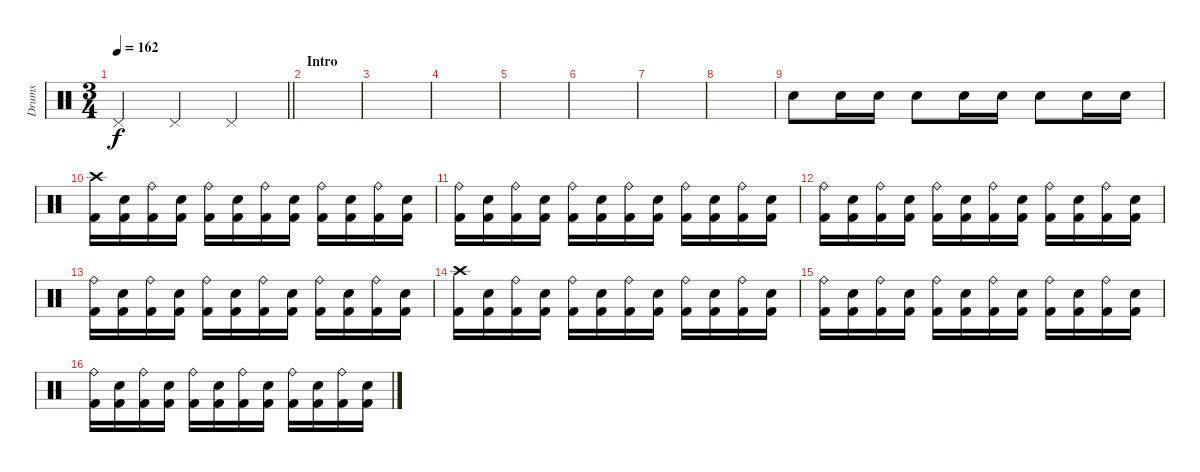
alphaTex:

\track ("Drums" "Drums") {instrument percussion}
\staff {score}
\articulation defaults
\ts (3 4)
\tempo 162
\clef neutral
\barLineRight lightlight
\ks c "Pedal Hi-Hat (hit)".4{dy f} "Pedal Hi-Hat (hit)".4 "Pedal Hi-Hat (hit)".4
|
\section ("" "Intro")
|
|
|
|
|
|
|
"Snare (hit) 2".8 "Snare (hit) 2".16 "Snare (hit) 2".16 "Snare (hit) 2".8 "Snare (hit) 2".16 "Snare (hit) 2".16 "Snare (hit) 2".8 "Snare (hit) 2".16 "Snare (hit) 2".16 |
("Crash high (hit)" "Kick (hit) 2").16 ("Snare (hit) 2" "Kick (hit) 2").16 ("Ride (bell)" "Kick (hit) 2").16 ("Snare (hit) 2" "Kick (hit) 2").16 ("Ride (bell)" "Kick (hit) 2").16 ("Snare (hit) 2" "Kick (hit) 2").16 ("Ride (bell)" "Kick (hit) 2").16 ("Snare (hit) 2" "Kick (hit) 2").16 ("Ride (bell)" "Kick (hit) 2").16 ("Snare (hit) 2" "Kick (hit) 2").16 ("Ride (bell)" "Kick (hit) 2").16 ("Snare (hit) 2" "Kick (hit) 2").16 |
("Ride (bell)" "Kick (hit) 2").16 ("Snare (hit) 2" "Kick (hit) 2").16 ("Ride (bell)" "Kick (hit) 2").16 ("Snare (hit) 2" "Kick (hit) 2").16 ("Ride (bell)" "Kick (hit) 2").16 ("Snare (hit) 2" "Kick (hit) 2").16 ("Ride (bell)" "Kick (hit) 2").16 ("Snare (hit) 2" "Kick (hit) 2").16 ("Ride (bell)" "Kick (hit) 2").16 ("Snare (hit) 2" "Kick (hit) 2").16 ("Ride (bell)" "Kick (hit) 2").16 ("Snare (hit) 2" "Kick (hit) 2").16 |
("Ride (bell)" "Kick (hit) 2").16 ("Snare (hit) 2" "Kick (hit) 2").16 ("Ride (bell)" "Kick (hit) 2").16 ("Snare (hit) 2" "Kick (hit) 2").16 ("Ride (bell)" "Kick (hit) 2").16 ("Snare (hit) 2" "Kick (hit) 2").16 ("Ride (bell)" "Kick (hit) 2").16 ("Snare (hit) 2" "Kick (hit) 2").16 ("Ride (bell)" "Kick (hit) 2").16 ("Snare (hit) 2" "Kick (hit) 2").16 ("Ride (bell)" "Kick (hit) 2").16 ("Snare (hit) 2" "Kick (hit) 2").16 |
("Ride (bell)" "Kick (hit) 2").16 ("Snare (hit) 2" "Kick (hit) 2").16 ("Ride (bell)" "Kick (hit) 2").16 ("Snare (hit) 2" "Kick (hit) 2").16 ("Ride (bell)" "Kick (hit) 2").16 ("Snare (hit) 2" "Kick (hit) 2").16 ("Ride (bell)" "Kick (hit) 2").16 ("Snare (hit) 2" "Kick (hit) 2").16 ("Ride (bell)" "Kick (hit) 2").16 ("Snare (hit) 2" "Kick (hit) 2").16 ("Ride (bell)" "Kick (hit) 2").16 ("Snare (hit) 2" "Kick (hit) 2").16 |
("Crash high (hit)" "Kick (hit) 2").16 ("Snare (hit) 2" "Kick (hit) 2").16 ("Ride (bell)" "Kick (hit) 2").16 ("Snare (hit) 2" "Kick (hit) 2").16 ("Ride (bell)" "Kick (hit) 2").16 ("Snare (hit) 2" "Kick (hit) 2").16 ("Ride (bell)" "Kick (hit) 2").16 ("Snare (hit) 2" "Kick (hit) 2").16 ("Ride (bell)" "Kick (hit) 2").16 ("Snare (hit) 2" "Kick (hit) 2").16 ("Ride (bell)" "Kick (hit) 2").16 ("Snare (hit) 2" "Kick (hit) 2").16 |
("Ride (bell)" "Kick (hit) 2").16 ("Snare (hit) 2" "Kick (hit) 2").16 ("Ride (bell)" "Kick (hit) 2").16 ("Snare (hit) 2" "Kick (hit) 2").16 ("Ride (bell)" "Kick (hit) 2").16 ("Snare (hit) 2" "Kick (hit) 2").16 ("Ride (bell)" "Kick (hit) 2").16 ("Snare (hit) 2" "Kick (hit) 2").16 ("Ride (bell)" "Kick (hit) 2").16 ("Snare (hit) 2" "Kick (hit) 2").16 ("Ride (bell)" "Kick (hit) 2").16 ("Snare (hit) 2" "Kick (hit) 2").16 |
("Ride (bell)" "Kick (hit) 2").16 ("Snare (hit) 2" "Kick (hit) 2").16 ("Ride (bell)" "Kick (hit) 2").16 ("Snare (hit) 2" "Kick (hit) 2").16 ("Ride (bell)" "Kick (hit) 2").16 ("Snare (hit) 2" "Kick (hit) 2").16 ("Ride (bell)" "Kick (hit) 2").16 ("Snare (hit) 2" "Kick (hit) 2").16 ("Ride (bell)" "Kick (hit) 2").16 ("Snare (hit) 2" "Kick (hit) 2").16 ("Ride (bell)" "Kick (hit) 2").16 ("Snare (hit) 2" "Kick (hit) 2").16
